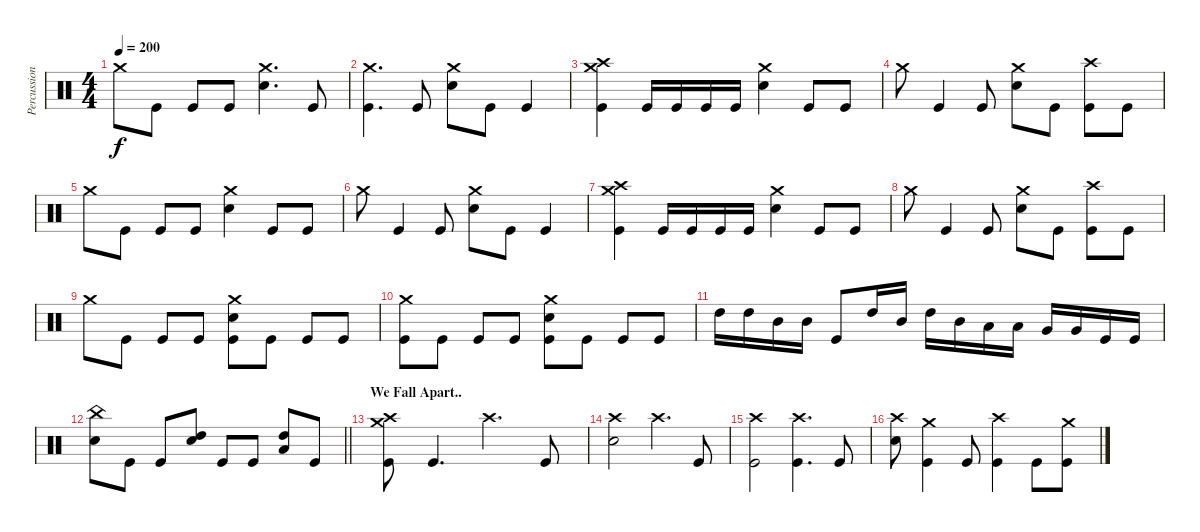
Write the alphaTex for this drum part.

\track ("Percussion" "Percussion") {instrument percussion}
\staff {score}
\articulation defaults
\ts (4 4)
\tempo 200
\clef neutral
\ks c "Crash medium (hit)".8{dy f} "Kick (hit)".8 "Kick (hit)".8 "Kick (hit)".8
("Crash medium (hit)" "Snare (hit) 2").4{d} "Kick (hit)".8 |
("Crash medium (hit)" "Kick (hit)").4{d} "Kick (hit)".8 ("Crash medium (hit)" "Snare (hit) 2").8 "Kick (hit)".8 "Kick (hit)".4 |
("Crash medium (hit)" "Crash high (hit)" "Kick (hit)").4 "Kick (hit)".16 "Kick (hit)".16 "Kick (hit)".16 "Kick (hit)".16 ("Crash medium (hit)" "Snare (hit) 2").4 "Kick (hit)".8 "Kick (hit)".8 |
"Crash medium (hit)".8 "Kick (hit)".4 "Kick (hit)".8 ("Crash medium (hit)" "Snare (hit) 2").8 "Kick (hit)".8 ("Crash high (hit)" "Kick (hit)").8 "Kick (hit)".8 |
"Crash medium (hit)".8 "Kick (hit)".8 "Kick (hit)".8 "Kick (hit)".8 ("Crash medium (hit)" "Snare (hit) 2").4 "Kick (hit)".8 "Kick (hit)".8 |
"Crash medium (hit)".8 "Kick (hit)".4 "Kick (hit)".8 ("Crash medium (hit)" "Snare (hit) 2").8 "Kick (hit)".8 "Kick (hit)".4 |
("Crash medium (hit)" "Crash high (hit)" "Kick (hit)").4 "Kick (hit)".16 "Kick (hit)".16 "Kick (hit)".16 "Kick (hit)".16 ("Crash medium (hit)" "Snare (hit) 2").4 "Kick (hit)".8 "Kick (hit)".8 |
"Crash medium (hit)".8 "Kick (hit)".4 "Kick (hit)".8 ("Crash medium (hit)" "Snare (hit) 2").8 "Kick (hit)".8 ("Crash high (hit)" "Kick (hit)").8 "Kick (hit)".8 |
"Crash medium (hit)".8 "Kick (hit)".8 "Kick (hit)".8 "Kick (hit)".8 ("Crash medium (hit)" "Snare (hit) 2" "Kick (hit)").8 "Kick (hit)".8 "Kick (hit)".8 "Kick (hit)".8 |
("Crash medium (hit)" "Kick (hit)").8 "Kick (hit)".8 "Kick (hit)".8 "Kick (hit)".8 ("Crash medium (hit)" "Snare (hit) 2" "Kick (hit)").8 "Kick (hit)".8 "Kick (hit)".8 "Kick (hit)".8 |
"High Tom (hit)".16 "High Tom (hit)".16 "Mid Tom (hit)".16 "Mid Tom (hit)".16 "Kick (hit)".8 "High Tom (hit)".16 "Mid Tom (hit)".16 "High Tom (hit)".16 "Mid Tom (hit)".16 "Low Tom (hit)".16 "Low Tom (hit)".16 "Very Low Tom (hit)".16 "Very Low Tom (hit)".16 "Kick (hit)".16 "Kick (hit)".16 |
\barLineRight lightlight
("China (hit)" "Snare (hit) 2").8 "Kick (hit)".8 "Kick (hit)".8 ("Snare (hit) 2" "High Tom (hit)").8 "Kick (hit)".8 "Kick (hit)".8 ("High Tom (hit)" "Low Tom (hit)").8 "Kick (hit)".8 |
\section ("" "We Fall Apart..")
("Crash high (hit)" "Crash medium (hit)" "Kick (hit)").8 "Kick (hit)".4{d} "Crash high (hit)".4{d} "Kick (hit)".8 |
("Crash high (hit)" "Snare (hit) 2").2 "Crash high (hit)".4{d} "Kick (hit)".8 |
("Crash high (hit)" "Kick (hit)").2 ("Crash high (hit)" "Kick (hit)").4{d} "Kick (hit)".8 |
("Crash high (hit)" "Snare (hit) 2").8 ("Crash medium (hit)" "Kick (hit)").4 "Kick (hit)".8 ("Crash high (hit)" "Kick (hit)").4 "Kick (hit)".8 ("Crash medium (hit)" "Kick (hit)").8
